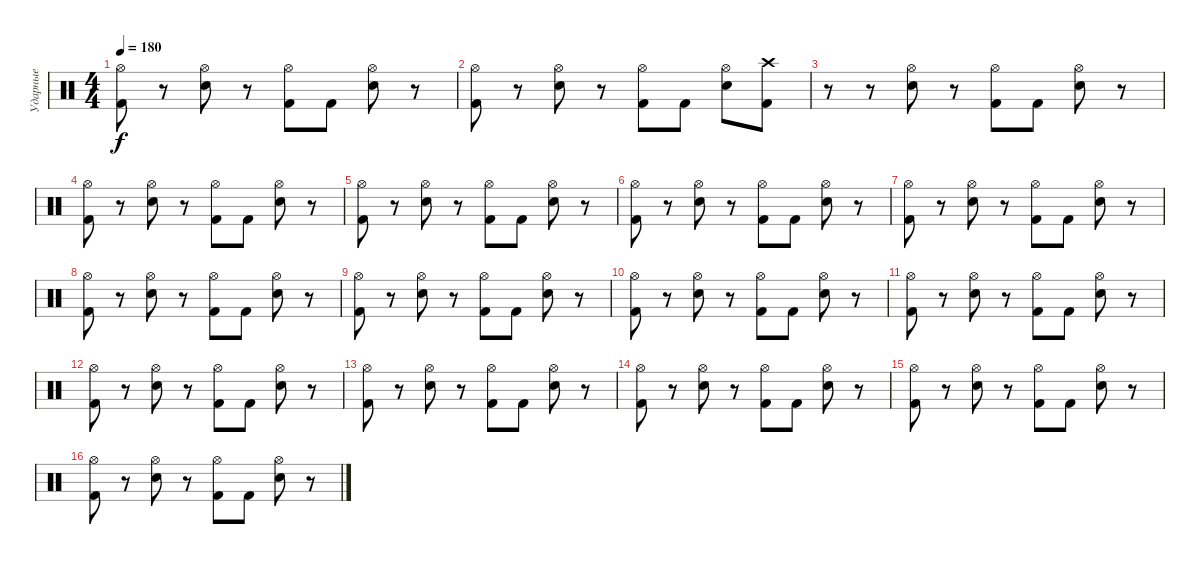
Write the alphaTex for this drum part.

\track ("Ударные" "Ударные") {instrument percussion}
\staff {score}
\articulation defaults
\ts (4 4)
\tempo 180
\clef neutral
\ks c
("Hi-Hat (open)" "Kick (hit) 2").8{dy f} r.8 ("Hi-Hat (open)" "Snare (hit) 2").8 r.8 ("Hi-Hat (open)" "Kick (hit) 2").8 "Kick (hit) 2".8 ("Hi-Hat (open)" "Snare (hit) 2").8 r.8 |
("Hi-Hat (open)" "Kick (hit) 2").8 r.8 ("Hi-Hat (open)" "Snare (hit) 2").8 r.8 ("Hi-Hat (open)" "Kick (hit) 2").8 "Kick (hit) 2".8 ("Hi-Hat (open)" "Snare (hit) 2").8 ("Crash high (hit)" "Kick (hit) 2").8 |
r.8 r.8 ("Hi-Hat (open)" "Snare (hit) 2").8 r.8 ("Hi-Hat (open)" "Kick (hit) 2").8 "Kick (hit) 2".8 ("Hi-Hat (open)" "Snare (hit) 2").8 r.8 |
("Hi-Hat (open)" "Kick (hit) 2").8 r.8 ("Hi-Hat (open)" "Snare (hit) 2").8 r.8 ("Hi-Hat (open)" "Kick (hit) 2").8 "Kick (hit) 2".8 ("Hi-Hat (open)" "Snare (hit) 2").8 r.8 |
("Hi-Hat (open)" "Kick (hit) 2").8 r.8 ("Hi-Hat (open)" "Snare (hit) 2").8 r.8 ("Hi-Hat (open)" "Kick (hit) 2").8 "Kick (hit) 2".8 ("Hi-Hat (open)" "Snare (hit) 2").8 r.8 |
("Hi-Hat (open)" "Kick (hit) 2").8 r.8 ("Hi-Hat (open)" "Snare (hit) 2").8 r.8 ("Hi-Hat (open)" "Kick (hit) 2").8 "Kick (hit) 2".8 ("Hi-Hat (open)" "Snare (hit) 2").8 r.8 |
("Hi-Hat (open)" "Kick (hit) 2").8 r.8 ("Hi-Hat (open)" "Snare (hit) 2").8 r.8 ("Hi-Hat (open)" "Kick (hit) 2").8 "Kick (hit) 2".8 ("Hi-Hat (open)" "Snare (hit) 2").8 r.8 |
("Hi-Hat (open)" "Kick (hit) 2").8 r.8 ("Hi-Hat (open)" "Snare (hit) 2").8 r.8 ("Hi-Hat (open)" "Kick (hit) 2").8 "Kick (hit) 2".8 ("Hi-Hat (open)" "Snare (hit) 2").8 r.8 |
("Hi-Hat (open)" "Kick (hit) 2").8 r.8 ("Hi-Hat (open)" "Snare (hit) 2").8 r.8 ("Hi-Hat (open)" "Kick (hit) 2").8 "Kick (hit) 2".8 ("Hi-Hat (open)" "Snare (hit) 2").8 r.8 |
("Hi-Hat (open)" "Kick (hit) 2").8 r.8 ("Hi-Hat (open)" "Snare (hit) 2").8 r.8 ("Hi-Hat (open)" "Kick (hit) 2").8 "Kick (hit) 2".8 ("Hi-Hat (open)" "Snare (hit) 2").8 r.8 |
("Hi-Hat (open)" "Kick (hit) 2").8 r.8 ("Hi-Hat (open)" "Snare (hit) 2").8 r.8 ("Hi-Hat (open)" "Kick (hit) 2").8 "Kick (hit) 2".8 ("Hi-Hat (open)" "Snare (hit) 2").8 r.8 |
("Hi-Hat (open)" "Kick (hit) 2").8 r.8 ("Hi-Hat (open)" "Snare (hit) 2").8 r.8 ("Hi-Hat (open)" "Kick (hit) 2").8 "Kick (hit) 2".8 ("Hi-Hat (open)" "Snare (hit) 2").8 r.8 |
("Hi-Hat (open)" "Kick (hit) 2").8 r.8 ("Hi-Hat (open)" "Snare (hit) 2").8 r.8 ("Hi-Hat (open)" "Kick (hit) 2").8 "Kick (hit) 2".8 ("Hi-Hat (open)" "Snare (hit) 2").8 r.8 |
("Hi-Hat (open)" "Kick (hit) 2").8 r.8 ("Hi-Hat (open)" "Snare (hit) 2").8 r.8 ("Hi-Hat (open)" "Kick (hit) 2").8 "Kick (hit) 2".8 ("Hi-Hat (open)" "Snare (hit) 2").8 r.8 |
("Hi-Hat (open)" "Kick (hit) 2").8 r.8 ("Hi-Hat (open)" "Snare (hit) 2").8 r.8 ("Hi-Hat (open)" "Kick (hit) 2").8 "Kick (hit) 2".8 ("Hi-Hat (open)" "Snare (hit) 2").8 r.8 |
("Hi-Hat (open)" "Kick (hit) 2").8 r.8 ("Hi-Hat (open)" "Snare (hit) 2").8 r.8 ("Hi-Hat (open)" "Kick (hit) 2").8 "Kick (hit) 2".8 ("Hi-Hat (open)" "Snare (hit) 2").8 r.8
